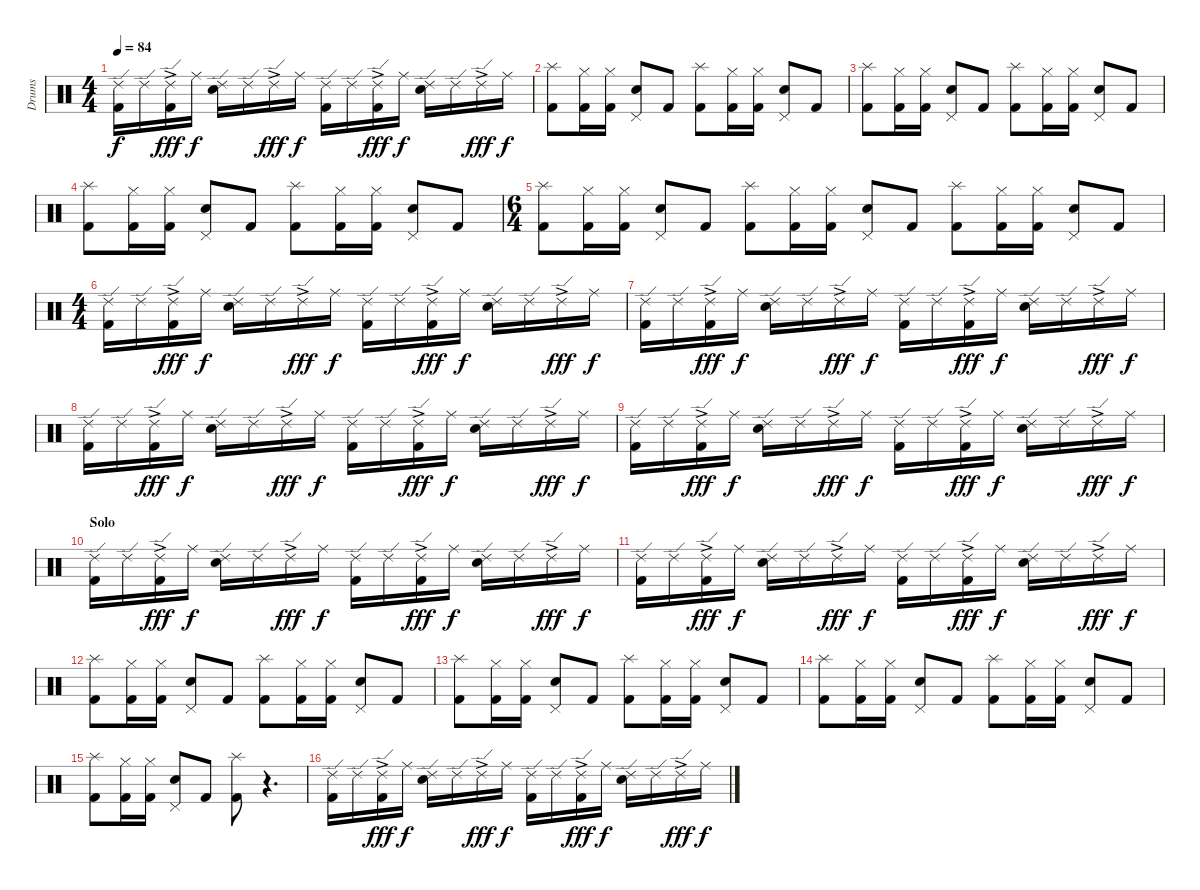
\track ("Drums" "Drums") {instrument percussion}
\staff {score}
\articulation defaults
\ts (4 4)
\tempo 84
\clef neutral
\ks c
("Ride (edge) 2" "Kick (hit) 2").16{dy f} "Ride (edge) 2".16 ("Ride (edge) 2"{ac} "Kick (hit) 2").16{dy fff} "Ride (middle)".16{dy f} ("Ride (edge) 2" "Snare (hit) 2").16 "Ride (edge) 2".16 "Ride (edge) 2"{ac}.16{dy fff} "Ride (middle)".16{dy f} ("Ride (edge) 2" "Kick (hit) 2").16 "Ride (edge) 2".16 ("Ride (edge) 2"{ac} "Kick (hit) 2").16{dy fff} "Ride (middle)".16{dy f} ("Ride (edge) 2" "Snare (hit) 2").16 "Ride (edge) 2".16 "Ride (edge) 2"{ac}.16{dy fff} "Ride (middle)".16{dy f} |
("Splash (hit)" "Kick (hit) 2").8 ("Hi-Hat (closed)" "Kick (hit) 2").16 ("Hi-Hat (closed)" "Kick (hit) 2").16 ("Pedal Hi-Hat (hit)" "Snare (hit) 2").8 "Kick (hit) 2".8 ("Splash (hit)" "Kick (hit) 2").8 ("Hi-Hat (closed)" "Kick (hit) 2").16 ("Hi-Hat (closed)" "Kick (hit) 2").16 ("Pedal Hi-Hat (hit)" "Snare (hit) 2").8 "Kick (hit) 2".8 |
("Splash (hit)" "Kick (hit) 2").8 ("Hi-Hat (closed)" "Kick (hit) 2").16 ("Hi-Hat (closed)" "Kick (hit) 2").16 ("Pedal Hi-Hat (hit)" "Snare (hit) 2").8 "Kick (hit) 2".8 ("Splash (hit)" "Kick (hit) 2").8 ("Hi-Hat (closed)" "Kick (hit) 2").16 ("Hi-Hat (closed)" "Kick (hit) 2").16 ("Pedal Hi-Hat (hit)" "Snare (hit) 2").8 "Kick (hit) 2".8 |
("Splash (hit)" "Kick (hit) 2").8 ("Hi-Hat (closed)" "Kick (hit) 2").16 ("Hi-Hat (closed)" "Kick (hit) 2").16 ("Pedal Hi-Hat (hit)" "Snare (hit) 2").8 "Kick (hit) 2".8 ("Splash (hit)" "Kick (hit) 2").8 ("Hi-Hat (closed)" "Kick (hit) 2").16 ("Hi-Hat (closed)" "Kick (hit) 2").16 ("Pedal Hi-Hat (hit)" "Snare (hit) 2").8 "Kick (hit) 2".8 |
\ts (6 4)
("Splash (hit)" "Kick (hit) 2").8 ("Hi-Hat (closed)" "Kick (hit) 2").16 ("Hi-Hat (closed)" "Kick (hit) 2").16 ("Pedal Hi-Hat (hit)" "Snare (hit) 2").8 "Kick (hit) 2".8 ("Splash (hit)" "Kick (hit) 2").8 ("Hi-Hat (closed)" "Kick (hit) 2").16 ("Hi-Hat (closed)" "Kick (hit) 2").16 ("Pedal Hi-Hat (hit)" "Snare (hit) 2").8 "Kick (hit) 2".8 ("Splash (hit)" "Kick (hit) 2").8 ("Hi-Hat (closed)" "Kick (hit) 2").16 ("Hi-Hat (closed)" "Kick (hit) 2").16 ("Pedal Hi-Hat (hit)" "Snare (hit) 2").8 "Kick (hit) 2".8 |
\ts (4 4)
("Ride (edge) 2" "Kick (hit) 2").16 "Ride (edge) 2".16 ("Ride (edge) 2"{ac} "Kick (hit) 2").16{dy fff} "Ride (middle)".16{dy f} ("Ride (edge) 2" "Snare (hit) 2").16 "Ride (edge) 2".16 "Ride (edge) 2"{ac}.16{dy fff} "Ride (middle)".16{dy f} ("Ride (edge) 2" "Kick (hit) 2").16 "Ride (edge) 2".16 ("Ride (edge) 2"{ac} "Kick (hit) 2").16{dy fff} "Ride (middle)".16{dy f} ("Ride (edge) 2" "Snare (hit) 2").16 "Ride (edge) 2".16 "Ride (edge) 2"{ac}.16{dy fff} "Ride (middle)".16{dy f} |
("Ride (edge) 2" "Kick (hit) 2").16 "Ride (edge) 2".16 ("Ride (edge) 2"{ac} "Kick (hit) 2").16{dy fff} "Ride (middle)".16{dy f} ("Ride (edge) 2" "Snare (hit) 2").16 "Ride (edge) 2".16 "Ride (edge) 2"{ac}.16{dy fff} "Ride (middle)".16{dy f} ("Ride (edge) 2" "Kick (hit) 2").16 "Ride (edge) 2".16 ("Ride (edge) 2"{ac} "Kick (hit) 2").16{dy fff} "Ride (middle)".16{dy f} ("Ride (edge) 2" "Snare (hit) 2").16 "Ride (edge) 2".16 "Ride (edge) 2"{ac}.16{dy fff} "Ride (middle)".16{dy f} |
("Ride (edge) 2" "Kick (hit) 2").16 "Ride (edge) 2".16 ("Ride (edge) 2"{ac} "Kick (hit) 2").16{dy fff} "Ride (middle)".16{dy f} ("Ride (edge) 2" "Snare (hit) 2").16 "Ride (edge) 2".16 "Ride (edge) 2"{ac}.16{dy fff} "Ride (middle)".16{dy f} ("Ride (edge) 2" "Kick (hit) 2").16 "Ride (edge) 2".16 ("Ride (edge) 2"{ac} "Kick (hit) 2").16{dy fff} "Ride (middle)".16{dy f} ("Ride (edge) 2" "Snare (hit) 2").16 "Ride (edge) 2".16 "Ride (edge) 2"{ac}.16{dy fff} "Ride (middle)".16{dy f} |
("Ride (edge) 2" "Kick (hit) 2").16 "Ride (edge) 2".16 ("Ride (edge) 2"{ac} "Kick (hit) 2").16{dy fff} "Ride (middle)".16{dy f} ("Ride (edge) 2" "Snare (hit) 2").16 "Ride (edge) 2".16 "Ride (edge) 2"{ac}.16{dy fff} "Ride (middle)".16{dy f} ("Ride (edge) 2" "Kick (hit) 2").16 "Ride (edge) 2".16 ("Ride (edge) 2"{ac} "Kick (hit) 2").16{dy fff} "Ride (middle)".16{dy f} ("Ride (edge) 2" "Snare (hit) 2").16 "Ride (edge) 2".16 "Ride (edge) 2"{ac}.16{dy fff} "Ride (middle)".16{dy f} |
\section ("" "Solo")
("Ride (edge) 2" "Kick (hit) 2").16 "Ride (edge) 2".16 ("Ride (edge) 2"{ac} "Kick (hit) 2").16{dy fff} "Ride (middle)".16{dy f} ("Ride (edge) 2" "Snare (hit) 2").16 "Ride (edge) 2".16 "Ride (edge) 2"{ac}.16{dy fff} "Ride (middle)".16{dy f} ("Ride (edge) 2" "Kick (hit) 2").16 "Ride (edge) 2".16 ("Ride (edge) 2"{ac} "Kick (hit) 2").16{dy fff} "Ride (middle)".16{dy f} ("Ride (edge) 2" "Snare (hit) 2").16 "Ride (edge) 2".16 "Ride (edge) 2"{ac}.16{dy fff} "Ride (middle)".16{dy f} |
("Ride (edge) 2" "Kick (hit) 2").16 "Ride (edge) 2".16 ("Ride (edge) 2"{ac} "Kick (hit) 2").16{dy fff} "Ride (middle)".16{dy f} ("Ride (edge) 2" "Snare (hit) 2").16 "Ride (edge) 2".16 "Ride (edge) 2"{ac}.16{dy fff} "Ride (middle)".16{dy f} ("Ride (edge) 2" "Kick (hit) 2").16 "Ride (edge) 2".16 ("Ride (edge) 2"{ac} "Kick (hit) 2").16{dy fff} "Ride (middle)".16{dy f} ("Ride (edge) 2" "Snare (hit) 2").16 "Ride (edge) 2".16 "Ride (edge) 2"{ac}.16{dy fff} "Ride (middle)".16{dy f} |
("Splash (hit)" "Kick (hit) 2").8 ("Hi-Hat (closed)" "Kick (hit) 2").16 ("Hi-Hat (closed)" "Kick (hit) 2").16 ("Pedal Hi-Hat (hit)" "Snare (hit) 2").8 "Kick (hit) 2".8 ("Splash (hit)" "Kick (hit) 2").8 ("Hi-Hat (closed)" "Kick (hit) 2").16 ("Hi-Hat (closed)" "Kick (hit) 2").16 ("Pedal Hi-Hat (hit)" "Snare (hit) 2").8 "Kick (hit) 2".8 |
("Splash (hit)" "Kick (hit) 2").8 ("Hi-Hat (closed)" "Kick (hit) 2").16 ("Hi-Hat (closed)" "Kick (hit) 2").16 ("Pedal Hi-Hat (hit)" "Snare (hit) 2").8 "Kick (hit) 2".8 ("Splash (hit)" "Kick (hit) 2").8 ("Hi-Hat (closed)" "Kick (hit) 2").16 ("Hi-Hat (closed)" "Kick (hit) 2").16 ("Pedal Hi-Hat (hit)" "Snare (hit) 2").8 "Kick (hit) 2".8 |
("Splash (hit)" "Kick (hit) 2").8 ("Hi-Hat (closed)" "Kick (hit) 2").16 ("Hi-Hat (closed)" "Kick (hit) 2").16 ("Pedal Hi-Hat (hit)" "Snare (hit) 2").8 "Kick (hit) 2".8 ("Splash (hit)" "Kick (hit) 2").8 ("Hi-Hat (closed)" "Kick (hit) 2").16 ("Hi-Hat (closed)" "Kick (hit) 2").16 ("Pedal Hi-Hat (hit)" "Snare (hit) 2").8 "Kick (hit) 2".8 |
("Splash (hit)" "Kick (hit) 2").8 ("Hi-Hat (closed)" "Kick (hit) 2").16 ("Hi-Hat (closed)" "Kick (hit) 2").16 ("Pedal Hi-Hat (hit)" "Snare (hit) 2").8 "Kick (hit) 2".8 ("Splash (hit)" "Kick (hit) 2").8 r.4{d} |
("Ride (edge) 2" "Kick (hit) 2").16 "Ride (edge) 2".16 ("Ride (edge) 2"{ac} "Kick (hit) 2").16{dy fff} "Ride (middle)".16{dy f} ("Ride (edge) 2" "Snare (hit) 2").16 "Ride (edge) 2".16 "Ride (edge) 2"{ac}.16{dy fff} "Ride (middle)".16{dy f} ("Ride (edge) 2" "Kick (hit) 2").16 "Ride (edge) 2".16 ("Ride (edge) 2"{ac} "Kick (hit) 2").16{dy fff} "Ride (middle)".16{dy f} ("Ride (edge) 2" "Snare (hit) 2").16 "Ride (edge) 2".16 "Ride (edge) 2"{ac}.16{dy fff} "Ride (middle)".16{dy f}
